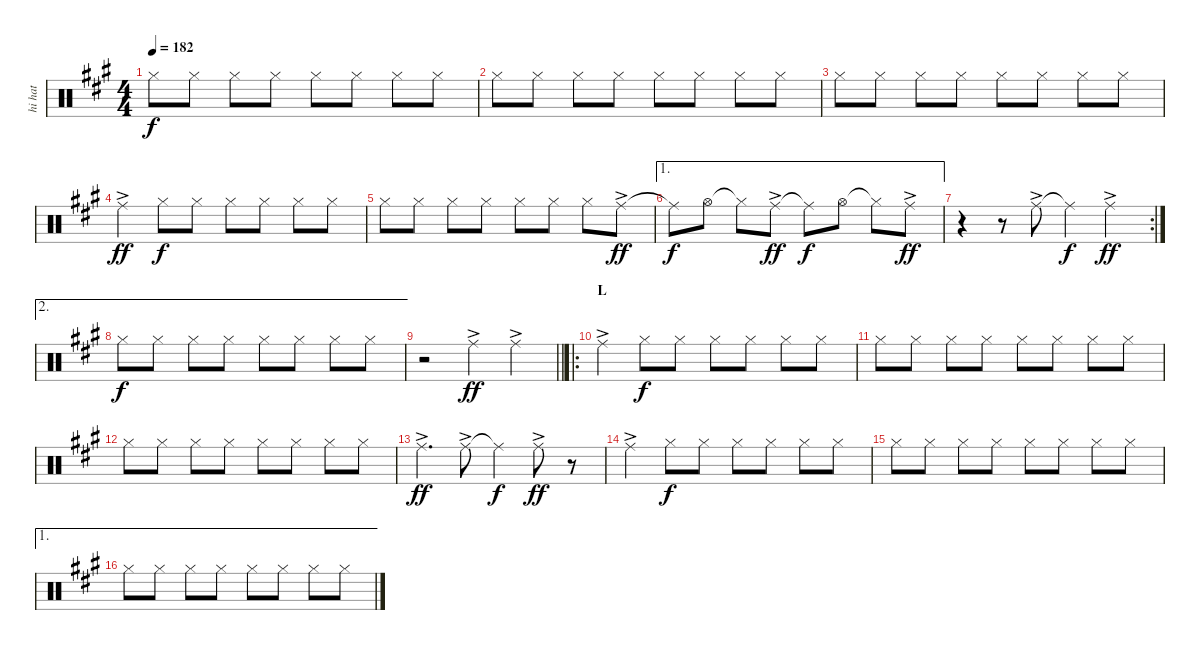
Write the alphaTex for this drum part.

\track ("hi hat" "hi hat") {instrument percussion}
\staff {score}
\articulation defaults
\ts (4 4)
\tempo 182
\clef neutral
\ks f#minor "Hi-Hat (closed)".8{dy f} "Hi-Hat (closed)".8 "Hi-Hat (closed)".8 "Hi-Hat (closed)".8 "Hi-Hat (closed)".8 "Hi-Hat (closed)".8 "Hi-Hat (closed)".8 "Hi-Hat (closed)".8
|
"Hi-Hat (closed)".8 "Hi-Hat (closed)".8 "Hi-Hat (closed)".8 "Hi-Hat (closed)".8 "Hi-Hat (closed)".8 "Hi-Hat (closed)".8 "Hi-Hat (closed)".8 "Hi-Hat (closed)".8 |
"Hi-Hat (closed)".8 "Hi-Hat (closed)".8 "Hi-Hat (closed)".8 "Hi-Hat (closed)".8 "Hi-Hat (closed)".8 "Hi-Hat (closed)".8 "Hi-Hat (closed)".8 "Hi-Hat (closed)".8 |
"Ride (middle)"{ac}.4{dy ff} "Hi-Hat (closed)".8{dy f} "Hi-Hat (closed)".8 "Hi-Hat (closed)".8 "Hi-Hat (closed)".8 "Hi-Hat (closed)".8 "Hi-Hat (closed)".8 |
"Hi-Hat (closed)".8 "Hi-Hat (closed)".8 "Hi-Hat (closed)".8 "Hi-Hat (closed)".8 "Hi-Hat (closed)".8 "Hi-Hat (closed)".8 "Hi-Hat (closed)".8 "Ride (middle)"{ac}.8{dy ff} |
\ae 1 "Ride (middle)"{t}.8{dy f} "Hi-Hat (open)".8 "Hi-Hat (closed)"{t}.8 "Ride (middle)"{ac}.8{dy ff} "Ride (middle)"{t}.8{dy f} "Hi-Hat (open)".8 "Hi-Hat (closed)"{t}.8 "Ride (middle)"{ac}.8{dy ff}
|
\rc 2
r.4 r.8 "Ride (middle)"{ac}.8 "Ride (middle)"{t}.4{dy f} "Ride (middle)"{ac}.4{dy ff} |
\ae 2 "Hi-Hat (closed)".8{dy f} "Hi-Hat (closed)".8 "Hi-Hat (closed)".8 "Hi-Hat (closed)".8 "Hi-Hat (closed)".8 "Hi-Hat (closed)".8 "Hi-Hat (closed)".8 "Hi-Hat (closed)".8
|
\barLineRight lightlight
r.2 "Ride (middle)"{ac}.4{dy ff} "Ride (middle)"{ac}.4 |
\ro
\section ("" "L")
"Ride (middle)"{ac}.4 "Hi-Hat (closed)".8{dy f} "Hi-Hat (closed)".8 "Hi-Hat (closed)".8 "Hi-Hat (closed)".8 "Hi-Hat (closed)".8 "Hi-Hat (closed)".8 |
"Hi-Hat (closed)".8 "Hi-Hat (closed)".8 "Hi-Hat (closed)".8 "Hi-Hat (closed)".8 "Hi-Hat (closed)".8 "Hi-Hat (closed)".8 "Hi-Hat (closed)".8 "Hi-Hat (closed)".8 |
"Hi-Hat (closed)".8 "Hi-Hat (closed)".8 "Hi-Hat (closed)".8 "Hi-Hat (closed)".8 "Hi-Hat (closed)".8 "Hi-Hat (closed)".8 "Hi-Hat (closed)".8 "Hi-Hat (closed)".8 |
"Ride (middle)"{ac}.4{d dy ff} "Ride (middle)"{ac}.8 "Ride (middle)"{t}.4{dy f} "Ride (middle)"{ac}.8{dy ff} r.8 |
"Ride (middle)"{ac}.4 "Hi-Hat (closed)".8{dy f} "Hi-Hat (closed)".8 "Hi-Hat (closed)".8 "Hi-Hat (closed)".8 "Hi-Hat (closed)".8 "Hi-Hat (closed)".8 |
"Hi-Hat (closed)".8 "Hi-Hat (closed)".8 "Hi-Hat (closed)".8 "Hi-Hat (closed)".8 "Hi-Hat (closed)".8 "Hi-Hat (closed)".8 "Hi-Hat (closed)".8 "Hi-Hat (closed)".8 |
\ae 1 "Hi-Hat (closed)".8 "Hi-Hat (closed)".8 "Hi-Hat (closed)".8 "Hi-Hat (closed)".8 "Hi-Hat (closed)".8 "Hi-Hat (closed)".8 "Hi-Hat (closed)".8 "Hi-Hat (closed)".8
